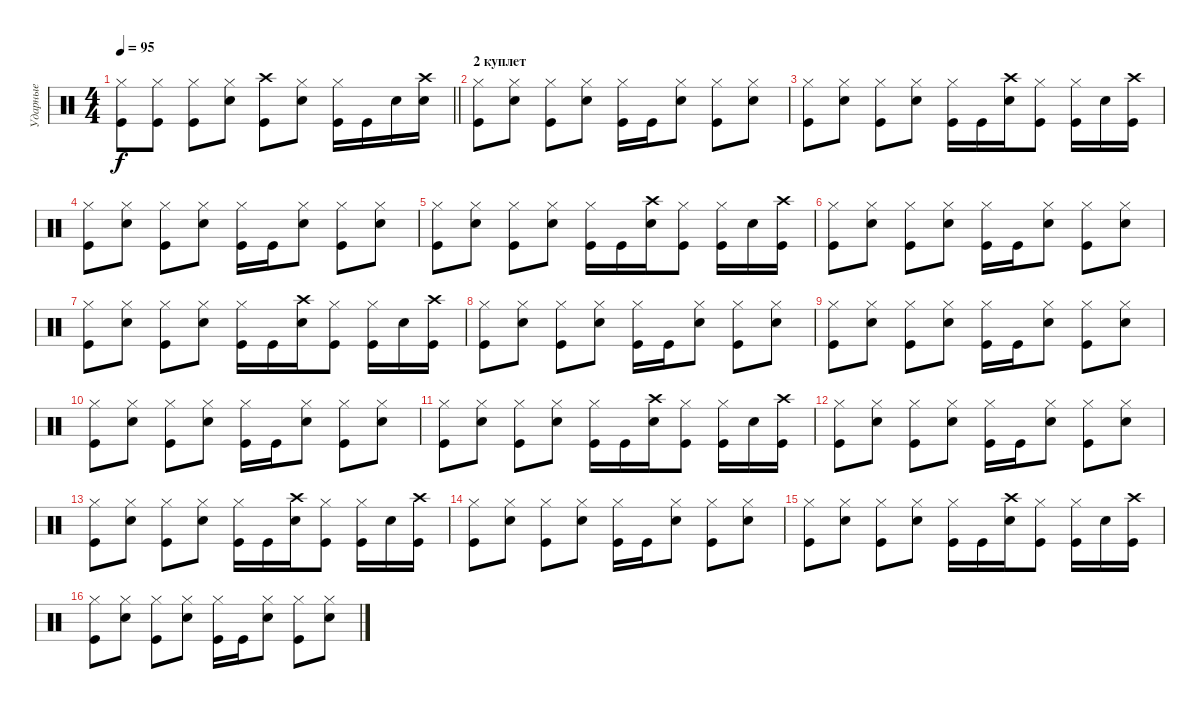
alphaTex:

\track ("Ударные" "Ударные") {instrument percussion}
\staff {score}
\articulation defaults
\ts (4 4)
\tempo 95
\clef neutral
\barLineRight lightlight
\ks c
("Hi-Hat (closed)" "Kick (hit)").8{dy f} ("Hi-Hat (closed)" "Kick (hit)").8 ("Hi-Hat (closed)" "Kick (hit)").8 ("Hi-Hat (closed)" "Snare (hit) 2").8 ("Crash high (hit)" "Kick (hit)").8 ("Hi-Hat (closed)" "Snare (hit) 2").8 ("Hi-Hat (closed)" "Kick (hit)").16 "Kick (hit)".16 "Snare (hit) 2".16 ("Crash high (hit)" "Snare (hit) 2").16 |
\section ("" "2 куплет")
("Hi-Hat (closed)" "Kick (hit)").8 ("Hi-Hat (closed)" "Snare (hit) 2").8 ("Hi-Hat (closed)" "Kick (hit)").8 ("Hi-Hat (closed)" "Snare (hit) 2").8 ("Hi-Hat (closed)" "Kick (hit)").16 "Kick (hit)".16 ("Hi-Hat (closed)" "Snare (hit) 2").8 ("Hi-Hat (closed)" "Kick (hit)").8 ("Hi-Hat (closed)" "Snare (hit) 2").8 |
("Hi-Hat (closed)" "Kick (hit)").8 ("Hi-Hat (closed)" "Snare (hit) 2").8 ("Hi-Hat (closed)" "Kick (hit)").8 ("Hi-Hat (closed)" "Snare (hit) 2").8 ("Hi-Hat (closed)" "Kick (hit)").16 "Kick (hit)".16 ("Crash high (hit)" "Snare (hit) 2").16 ("Hi-Hat (closed)" "Kick (hit)").8 ("Hi-Hat (closed)" "Kick (hit)").16 "Snare (hit) 2".16 ("Crash high (hit)" "Kick (hit)").16 |
("Hi-Hat (closed)" "Kick (hit)").8 ("Hi-Hat (closed)" "Snare (hit) 2").8 ("Hi-Hat (closed)" "Kick (hit)").8 ("Hi-Hat (closed)" "Snare (hit) 2").8 ("Hi-Hat (closed)" "Kick (hit)").16 "Kick (hit)".16 ("Hi-Hat (closed)" "Snare (hit) 2").8 ("Hi-Hat (closed)" "Kick (hit)").8 ("Hi-Hat (closed)" "Snare (hit) 2").8 |
("Hi-Hat (closed)" "Kick (hit)").8 ("Hi-Hat (closed)" "Snare (hit) 2").8 ("Hi-Hat (closed)" "Kick (hit)").8 ("Hi-Hat (closed)" "Snare (hit) 2").8 ("Hi-Hat (closed)" "Kick (hit)").16 "Kick (hit)".16 ("Crash high (hit)" "Snare (hit) 2").16 ("Hi-Hat (closed)" "Kick (hit)").8 ("Hi-Hat (closed)" "Kick (hit)").16 "Snare (hit) 2".16 ("Crash high (hit)" "Kick (hit)").16 |
("Hi-Hat (closed)" "Kick (hit)").8 ("Hi-Hat (closed)" "Snare (hit) 2").8 ("Hi-Hat (closed)" "Kick (hit)").8 ("Hi-Hat (closed)" "Snare (hit) 2").8 ("Hi-Hat (closed)" "Kick (hit)").16 "Kick (hit)".16 ("Hi-Hat (closed)" "Snare (hit) 2").8 ("Hi-Hat (closed)" "Kick (hit)").8 ("Hi-Hat (closed)" "Snare (hit) 2").8 |
("Hi-Hat (closed)" "Kick (hit)").8 ("Hi-Hat (closed)" "Snare (hit) 2").8 ("Hi-Hat (closed)" "Kick (hit)").8 ("Hi-Hat (closed)" "Snare (hit) 2").8 ("Hi-Hat (closed)" "Kick (hit)").16 "Kick (hit)".16 ("Crash high (hit)" "Snare (hit) 2").16 ("Hi-Hat (closed)" "Kick (hit)").8 ("Hi-Hat (closed)" "Kick (hit)").16 "Snare (hit) 2".16 ("Crash high (hit)" "Kick (hit)").16 |
("Hi-Hat (closed)" "Kick (hit)").8 ("Hi-Hat (closed)" "Snare (hit) 2").8 ("Hi-Hat (closed)" "Kick (hit)").8 ("Hi-Hat (closed)" "Snare (hit) 2").8 ("Hi-Hat (closed)" "Kick (hit)").16 "Kick (hit)".16 ("Hi-Hat (closed)" "Snare (hit) 2").8 ("Hi-Hat (closed)" "Kick (hit)").8 ("Hi-Hat (closed)" "Snare (hit) 2").8 |
("Hi-Hat (closed)" "Kick (hit)").8 ("Hi-Hat (closed)" "Snare (hit) 2").8 ("Hi-Hat (closed)" "Kick (hit)").8 ("Hi-Hat (closed)" "Snare (hit) 2").8 ("Hi-Hat (closed)" "Kick (hit)").16 "Kick (hit)".16 ("Hi-Hat (closed)" "Snare (hit) 2").8 ("Hi-Hat (closed)" "Kick (hit)").8 ("Hi-Hat (closed)" "Snare (hit) 2").8 |
("Hi-Hat (closed)" "Kick (hit)").8 ("Hi-Hat (closed)" "Snare (hit) 2").8 ("Hi-Hat (closed)" "Kick (hit)").8 ("Hi-Hat (closed)" "Snare (hit) 2").8 ("Hi-Hat (closed)" "Kick (hit)").16 "Kick (hit)".16 ("Hi-Hat (closed)" "Snare (hit) 2").8 ("Hi-Hat (closed)" "Kick (hit)").8 ("Hi-Hat (closed)" "Snare (hit) 2").8 |
("Hi-Hat (closed)" "Kick (hit)").8 ("Hi-Hat (closed)" "Snare (hit) 2").8 ("Hi-Hat (closed)" "Kick (hit)").8 ("Hi-Hat (closed)" "Snare (hit) 2").8 ("Hi-Hat (closed)" "Kick (hit)").16 "Kick (hit)".16 ("Crash high (hit)" "Snare (hit) 2").16 ("Hi-Hat (closed)" "Kick (hit)").8 ("Hi-Hat (closed)" "Kick (hit)").16 "Snare (hit) 2".16 ("Crash high (hit)" "Kick (hit)").16 |
("Hi-Hat (closed)" "Kick (hit)").8 ("Hi-Hat (closed)" "Snare (hit) 2").8 ("Hi-Hat (closed)" "Kick (hit)").8 ("Hi-Hat (closed)" "Snare (hit) 2").8 ("Hi-Hat (closed)" "Kick (hit)").16 "Kick (hit)".16 ("Hi-Hat (closed)" "Snare (hit) 2").8 ("Hi-Hat (closed)" "Kick (hit)").8 ("Hi-Hat (closed)" "Snare (hit) 2").8 |
("Hi-Hat (closed)" "Kick (hit)").8 ("Hi-Hat (closed)" "Snare (hit) 2").8 ("Hi-Hat (closed)" "Kick (hit)").8 ("Hi-Hat (closed)" "Snare (hit) 2").8 ("Hi-Hat (closed)" "Kick (hit)").16 "Kick (hit)".16 ("Crash high (hit)" "Snare (hit) 2").16 ("Hi-Hat (closed)" "Kick (hit)").8 ("Hi-Hat (closed)" "Kick (hit)").16 "Snare (hit) 2".16 ("Crash high (hit)" "Kick (hit)").16 |
("Hi-Hat (closed)" "Kick (hit)").8 ("Hi-Hat (closed)" "Snare (hit) 2").8 ("Hi-Hat (closed)" "Kick (hit)").8 ("Hi-Hat (closed)" "Snare (hit) 2").8 ("Hi-Hat (closed)" "Kick (hit)").16 "Kick (hit)".16 ("Hi-Hat (closed)" "Snare (hit) 2").8 ("Hi-Hat (closed)" "Kick (hit)").8 ("Hi-Hat (closed)" "Snare (hit) 2").8 |
("Hi-Hat (closed)" "Kick (hit)").8 ("Hi-Hat (closed)" "Snare (hit) 2").8 ("Hi-Hat (closed)" "Kick (hit)").8 ("Hi-Hat (closed)" "Snare (hit) 2").8 ("Hi-Hat (closed)" "Kick (hit)").16 "Kick (hit)".16 ("Crash high (hit)" "Snare (hit) 2").16 ("Hi-Hat (closed)" "Kick (hit)").8 ("Hi-Hat (closed)" "Kick (hit)").16 "Snare (hit) 2".16 ("Crash high (hit)" "Kick (hit)").16 |
("Hi-Hat (closed)" "Kick (hit)").8 ("Hi-Hat (closed)" "Snare (hit) 2").8 ("Hi-Hat (closed)" "Kick (hit)").8 ("Hi-Hat (closed)" "Snare (hit) 2").8 ("Hi-Hat (closed)" "Kick (hit)").16 "Kick (hit)".16 ("Hi-Hat (closed)" "Snare (hit) 2").8 ("Hi-Hat (closed)" "Kick (hit)").8 ("Hi-Hat (closed)" "Snare (hit) 2").8
